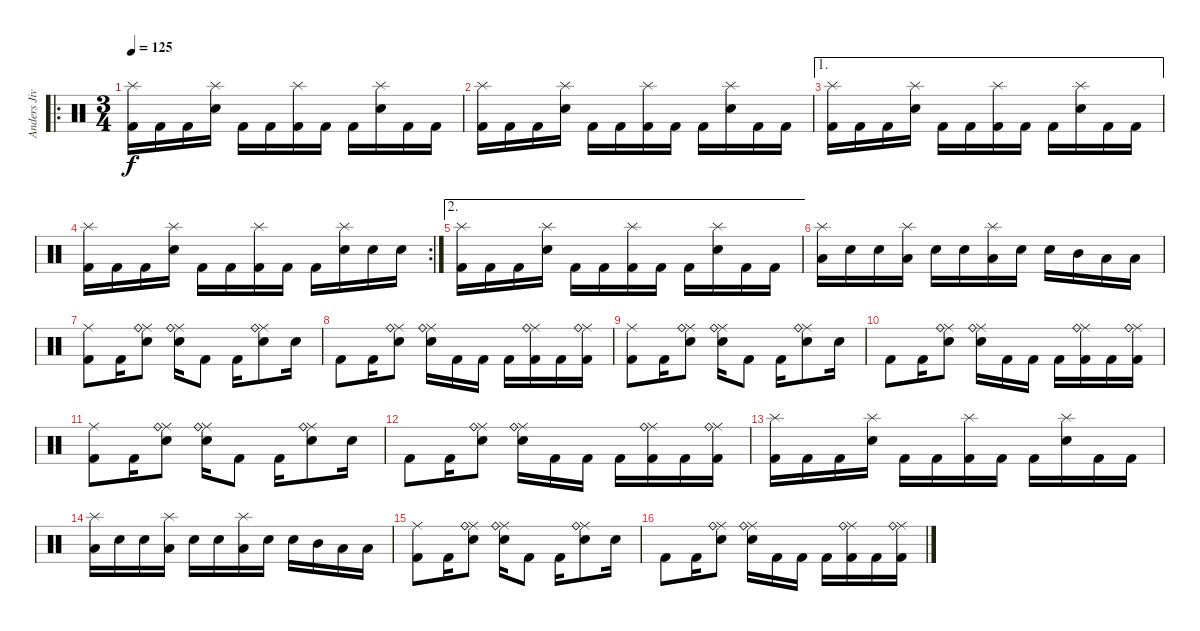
\track ("Anders Jivarp" "Anders Jiv") {instrument percussion}
\staff {score}
\articulation defaults
\ro
\ts (3 4)
\tempo 125
\clef neutral
\ks c
("Splash (hit)" "Kick (hit) 2").16{dy f} "Kick (hit) 2".16 "Kick (hit) 2".16 ("Splash (hit)" "Electric Snare (hit)").16 "Kick (hit) 2".16 "Kick (hit) 2".16 ("Splash (hit)" "Kick (hit) 2").16 "Kick (hit) 2".16 "Kick (hit) 2".16 ("Splash (hit)" "Electric Snare (hit)").16 "Kick (hit) 2".16 "Kick (hit) 2".16 |
("Splash (hit)" "Kick (hit) 2").16 "Kick (hit) 2".16 "Kick (hit) 2".16 ("Splash (hit)" "Electric Snare (hit)").16 "Kick (hit) 2".16 "Kick (hit) 2".16 ("Splash (hit)" "Kick (hit) 2").16 "Kick (hit) 2".16 "Kick (hit) 2".16 ("Splash (hit)" "Electric Snare (hit)").16 "Kick (hit) 2".16 "Kick (hit) 2".16 |
\ae 1
("Splash (hit)" "Kick (hit) 2").16 "Kick (hit) 2".16 "Kick (hit) 2".16 ("Splash (hit)" "Electric Snare (hit)").16 "Kick (hit) 2".16 "Kick (hit) 2".16 ("Splash (hit)" "Kick (hit) 2").16 "Kick (hit) 2".16 "Kick (hit) 2".16 ("Splash (hit)" "Electric Snare (hit)").16 "Kick (hit) 2".16 "Kick (hit) 2".16 |
\rc 2
("Splash (hit)" "Kick (hit) 2").16 "Kick (hit) 2".16 "Kick (hit) 2".16 ("Splash (hit)" "Electric Snare (hit)").16 "Kick (hit) 2".16 "Kick (hit) 2".16 ("Splash (hit)" "Kick (hit) 2").16 "Kick (hit) 2".16 "Kick (hit) 2".16 ("Splash (hit)" "Electric Snare (hit)").16 "Electric Snare (hit)".16 "Electric Snare (hit)".16 |
\ae 2
("Splash (hit)" "Kick (hit) 2").16 "Kick (hit) 2".16 "Kick (hit) 2".16 ("Splash (hit)" "Electric Snare (hit)").16 "Kick (hit) 2".16 "Kick (hit) 2".16 ("Splash (hit)" "Kick (hit) 2").16 "Kick (hit) 2".16 "Kick (hit) 2".16 ("Splash (hit)" "Electric Snare (hit)").16 "Kick (hit) 2".16 "Kick (hit) 2".16 |
("Splash (hit)" "Low Floor Tom (hit)").16 "Electric Snare (hit)".16 "Electric Snare (hit)".16 ("Splash (hit)" "Low Floor Tom (hit)").16 "Electric Snare (hit)".16 "Electric Snare (hit)".16 ("Splash (hit)" "Low Floor Tom (hit)").16 "Electric Snare (hit)".16 "Electric Snare (hit)".16 "Mid Tom (hit)".16 "Low Tom (hit)".16 "Low Floor Tom (hit)".16 |
("Ride (middle)" "Kick (hit) 2").8 "Kick (hit) 2".16 ("Ride (middle)" "Ride (bell)" "Electric Snare (hit)").8 ("Ride (middle)" "Ride (bell)" "Electric Snare (hit)").16 "Kick (hit) 2".8 "Kick (hit) 2".16 ("Ride (middle)" "Ride (bell)" "Electric Snare (hit)").8 "Electric Snare (hit)".16 |
"Kick (hit) 2".8 "Kick (hit) 2".16 ("Ride (middle)" "Ride (bell)" "Electric Snare (hit)").8 ("Ride (middle)" "Ride (bell)" "Electric Snare (hit)").16 "Kick (hit) 2".16 "Kick (hit) 2".16 "Kick (hit) 2".16 ("Ride (middle)" "Ride (bell)" "Kick (hit) 2").16 "Kick (hit) 2".16 ("Ride (middle)" "Ride (bell)" "Kick (hit) 2").16 |
("Ride (middle)" "Kick (hit) 2").8 "Kick (hit) 2".16 ("Ride (middle)" "Ride (bell)" "Electric Snare (hit)").8 ("Ride (middle)" "Ride (bell)" "Electric Snare (hit)").16 "Kick (hit) 2".8 "Kick (hit) 2".16 ("Ride (middle)" "Ride (bell)" "Electric Snare (hit)").8 "Electric Snare (hit)".16 |
"Kick (hit) 2".8 "Kick (hit) 2".16 ("Ride (middle)" "Ride (bell)" "Electric Snare (hit)").8 ("Ride (middle)" "Ride (bell)" "Electric Snare (hit)").16 "Kick (hit) 2".16 "Kick (hit) 2".16 "Kick (hit) 2".16 ("Ride (middle)" "Ride (bell)" "Kick (hit) 2").16 "Kick (hit) 2".16 ("Ride (middle)" "Ride (bell)" "Kick (hit) 2").16 |
("Ride (middle)" "Kick (hit) 2").8 "Kick (hit) 2".16 ("Ride (middle)" "Ride (bell)" "Electric Snare (hit)").8 ("Ride (middle)" "Ride (bell)" "Electric Snare (hit)").16 "Kick (hit) 2".8 "Kick (hit) 2".16 ("Ride (middle)" "Ride (bell)" "Electric Snare (hit)").8 "Electric Snare (hit)".16 |
"Kick (hit) 2".8 "Kick (hit) 2".16 ("Ride (middle)" "Ride (bell)" "Electric Snare (hit)").8 ("Ride (middle)" "Ride (bell)" "Electric Snare (hit)").16 "Kick (hit) 2".16 "Kick (hit) 2".16 "Kick (hit) 2".16 ("Ride (middle)" "Ride (bell)" "Kick (hit) 2").16 "Kick (hit) 2".16 ("Ride (middle)" "Ride (bell)" "Kick (hit) 2").16 |
("Splash (hit)" "Kick (hit) 2").16 "Kick (hit) 2".16 "Kick (hit) 2".16 ("Splash (hit)" "Electric Snare (hit)").16 "Kick (hit) 2".16 "Kick (hit) 2".16 ("Splash (hit)" "Kick (hit) 2").16 "Kick (hit) 2".16 "Kick (hit) 2".16 ("Splash (hit)" "Electric Snare (hit)").16 "Kick (hit) 2".16 "Kick (hit) 2".16 |
("Splash (hit)" "Low Floor Tom (hit)").16 "Electric Snare (hit)".16 "Electric Snare (hit)".16 ("Splash (hit)" "Low Floor Tom (hit)").16 "Electric Snare (hit)".16 "Electric Snare (hit)".16 ("Splash (hit)" "Low Floor Tom (hit)").16 "Electric Snare (hit)".16 "Electric Snare (hit)".16 "Mid Tom (hit)".16 "Low Tom (hit)".16 "Low Floor Tom (hit)".16 |
("Ride (middle)" "Kick (hit) 2").8 "Kick (hit) 2".16 ("Ride (middle)" "Ride (bell)" "Electric Snare (hit)").8 ("Ride (middle)" "Ride (bell)" "Electric Snare (hit)").16 "Kick (hit) 2".8 "Kick (hit) 2".16 ("Ride (middle)" "Ride (bell)" "Electric Snare (hit)").8 "Electric Snare (hit)".16 |
"Kick (hit) 2".8 "Kick (hit) 2".16 ("Ride (middle)" "Ride (bell)" "Electric Snare (hit)").8 ("Ride (middle)" "Ride (bell)" "Electric Snare (hit)").16 "Kick (hit) 2".16 "Kick (hit) 2".16 "Kick (hit) 2".16 ("Ride (middle)" "Ride (bell)" "Kick (hit) 2").16 "Kick (hit) 2".16 ("Ride (middle)" "Ride (bell)" "Kick (hit) 2").16
